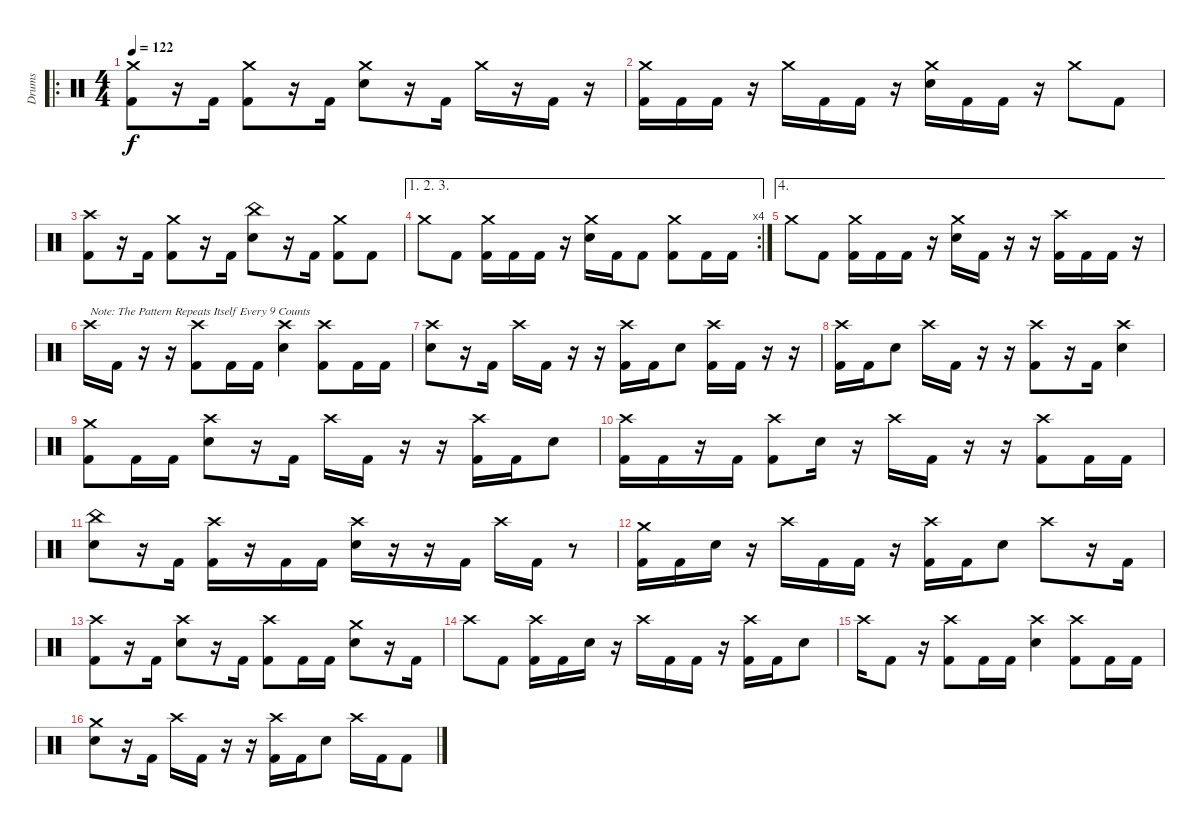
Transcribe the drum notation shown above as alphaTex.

\track ("Drums" "Drums") {instrument percussion}
\staff {score}
\articulation defaults
\ro
\ts (4 4)
\tempo 122
\clef neutral
\ks c
("Crash medium (hit)" "Kick (hit) 2").8{dy f} r.16 "Kick (hit) 2".16 ("Crash medium (hit)" "Kick (hit) 2").8 r.16 "Kick (hit) 2".16 ("Crash medium (hit)" "Electric Snare (hit)").8 r.16 "Kick (hit) 2".16 "Crash medium (hit)".16 r.16 "Kick (hit) 2".16 r.16 |
("Crash medium (hit)" "Kick (hit) 2").16 "Kick (hit) 2".16 "Kick (hit) 2".16 r.16 "Crash medium (hit)".16 "Kick (hit) 2".16 "Kick (hit) 2".16 r.16 ("Crash medium (hit)" "Electric Snare (hit)").16 "Kick (hit) 2".16 "Kick (hit) 2".16 r.16 "Crash medium (hit)".8 "Kick (hit) 2".8 |
("Crash high (hit)" "Kick (hit) 2").8 r.16 "Kick (hit) 2".16 ("Crash medium (hit)" "Kick (hit) 2").8 r.16 "Kick (hit) 2".16 ("China (hit)" "Electric Snare (hit)").8 r.16 "Kick (hit) 2".16 ("Crash medium (hit)" "Kick (hit) 2").8 "Kick (hit) 2".8 |
\ae (1 2 3)
\rc 4 "Crash medium (hit)".8 "Kick (hit) 2".8
("Crash medium (hit)" "Kick (hit) 2").16 "Kick (hit) 2".16 "Kick (hit) 2".16 r.16 ("Crash medium (hit)" "Electric Snare (hit)").16 "Kick (hit) 2".16 "Kick (hit) 2".8 ("Crash medium (hit)" "Kick (hit) 2").8 "Kick (hit) 2".16 "Kick (hit) 2".16 |
\ae 4 "Crash medium (hit)".8 "Kick (hit) 2".8
("Crash medium (hit)" "Kick (hit) 2").16 "Kick (hit) 2".16 "Kick (hit) 2".16 r.16 ("Crash medium (hit)" "Electric Snare (hit)").16 "Kick (hit) 2".16 r.16 r.16 ("Crash high (hit)" "Kick (hit) 2").16 "Kick (hit) 2".16 "Kick (hit) 2".16 r.16 |
"Crash high (hit)".16{txt "Note: The Pattern Repeats Itself Every 9 Counts"} "Kick (hit) 2".16 r.16 r.16 ("Crash high (hit)" "Kick (hit) 2").8 "Kick (hit) 2".16 "Kick (hit) 2".16 ("Crash high (hit)" "Electric Snare (hit)").4 ("Crash high (hit)" "Kick (hit) 2").8 "Kick (hit) 2".16 "Kick (hit) 2".16 |
("Crash high (hit)" "Electric Snare (hit)").8 r.16 "Kick (hit) 2".16 "Crash high (hit)".16 "Kick (hit) 2".16 r.16 r.16 ("Crash high (hit)" "Kick (hit) 2").16 "Kick (hit) 2".16 "Electric Snare (hit)".8 ("Crash high (hit)" "Kick (hit) 2").16 "Kick (hit) 2".16 r.16 r.16 |
("Crash high (hit)" "Kick (hit) 2").16 "Kick (hit) 2".16 "Electric Snare (hit)".8 "Crash high (hit)".16 "Kick (hit) 2".16 r.16 r.16 ("Crash high (hit)" "Kick (hit) 2").8 r.16 "Kick (hit) 2".16 ("Crash high (hit)" "Electric Snare (hit)").4 |
("Crash medium (hit)" "Kick (hit) 2").8 "Kick (hit) 2".16 "Kick (hit) 2".16 ("Crash high (hit)" "Electric Snare (hit)").8 r.16 "Kick (hit) 2".16 "Crash high (hit)".16 "Kick (hit) 2".16 r.16 r.16 ("Crash high (hit)" "Kick (hit) 2").16 "Kick (hit) 2".16 "Electric Snare (hit)".8 |
("Crash high (hit)" "Kick (hit) 2").16 "Kick (hit) 2".16 r.16 "Kick (hit) 2".16 ("Crash high (hit)" "Kick (hit) 2").8 "Electric Snare (hit)".16 r.16 "Crash high (hit)".16 "Kick (hit) 2".16 r.16 r.16 ("Crash high (hit)" "Kick (hit) 2").8 "Kick (hit) 2".16 "Kick (hit) 2".16 |
("China (hit)" "Electric Snare (hit)").8 r.16 "Kick (hit) 2".16 ("Crash high (hit)" "Kick (hit) 2").16 r.16 "Kick (hit) 2".16 "Kick (hit) 2".16 ("Crash high (hit)" "Electric Snare (hit)").16 r.16 r.16 "Kick (hit) 2".16 "Crash high (hit)".16 "Kick (hit) 2".16 r.8 |
("Crash medium (hit)" "Kick (hit) 2").16 "Kick (hit) 2".16 "Electric Snare (hit)".16 r.16 "Crash high (hit)".16 "Kick (hit) 2".16 "Kick (hit) 2".16 r.16 ("Crash high (hit)" "Kick (hit) 2").16 "Kick (hit) 2".16 "Electric Snare (hit)".8 "Crash high (hit)".8 r.16 "Kick (hit) 2".16 |
("Crash high (hit)" "Kick (hit) 2").8 r.16 "Kick (hit) 2".16 ("Crash high (hit)" "Electric Snare (hit)").8 r.16 "Kick (hit) 2".16 ("Crash high (hit)" "Kick (hit) 2").8 "Kick (hit) 2".16 "Kick (hit) 2".16 ("Crash medium (hit)" "Electric Snare (hit)").8 r.16 "Kick (hit) 2".16 |
"Crash high (hit)".8 "Kick (hit) 2".8 ("Crash high (hit)" "Kick (hit) 2").16 "Kick (hit) 2".16 "Electric Snare (hit)".16 r.16 "Crash high (hit)".16 "Kick (hit) 2".16 "Kick (hit) 2".16 r.16 ("Crash high (hit)" "Kick (hit) 2").16 "Kick (hit) 2".16 "Electric Snare (hit)".8 |
"Crash high (hit)".16 "Kick (hit) 2".8 r.16 ("Crash high (hit)" "Kick (hit) 2").8 "Kick (hit) 2".16 "Kick (hit) 2".16 ("Crash high (hit)" "Electric Snare (hit)").4 ("Crash high (hit)" "Kick (hit) 2").8 "Kick (hit) 2".16 "Kick (hit) 2".16 |
("Crash medium (hit)" "Electric Snare (hit)").8 r.16 "Kick (hit) 2".16 "Crash high (hit)".16 "Kick (hit) 2".16 r.16 r.16 ("Crash high (hit)" "Kick (hit) 2").16 "Kick (hit) 2".16 "Electric Snare (hit)".8 "Crash high (hit)".16 "Kick (hit) 2".16 "Kick (hit) 2".8
